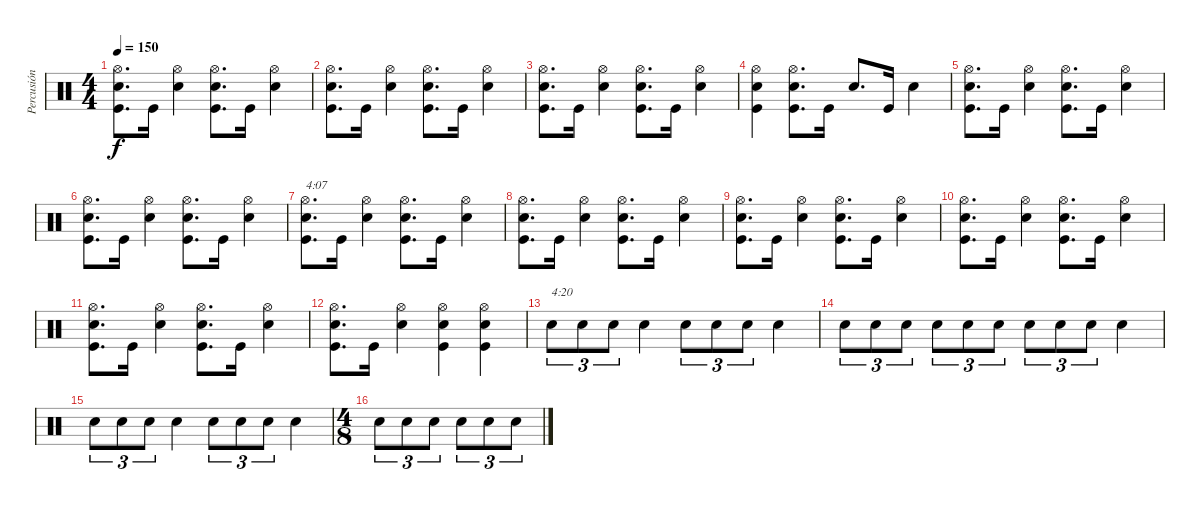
\track ("Percusión" "Percusión") {instrument percussion}
\staff {score}
\articulation defaults
\ts (4 4)
\tempo 150
\clef neutral
\ks c
("Kick (hit)" "Snare (hit) 2" "Hi-Hat (open)").8{d dy f} "Kick (hit)".16 ("Snare (hit) 2" "Hi-Hat (open)").4 ("Kick (hit)" "Snare (hit) 2" "Hi-Hat (open)").8{d} "Kick (hit)".16 ("Snare (hit) 2" "Hi-Hat (open)").4 |
("Kick (hit)" "Snare (hit) 2" "Hi-Hat (open)").8{d} "Kick (hit)".16 ("Snare (hit) 2" "Hi-Hat (open)").4 ("Kick (hit)" "Snare (hit) 2" "Hi-Hat (open)").8{d} "Kick (hit)".16 ("Snare (hit) 2" "Hi-Hat (open)").4 |
("Kick (hit)" "Snare (hit) 2" "Hi-Hat (open)").8{d} "Kick (hit)".16 ("Snare (hit) 2" "Hi-Hat (open)").4 ("Kick (hit)" "Snare (hit) 2" "Hi-Hat (open)").8{d} "Kick (hit)".16 ("Snare (hit) 2" "Hi-Hat (open)").4 |
("Kick (hit)" "Snare (hit) 2" "Hi-Hat (open)").4 ("Kick (hit)" "Snare (hit) 2" "Hi-Hat (open)").8{d} "Kick (hit)".16 "Snare (hit) 2".8{d} "Kick (hit)".16 "Snare (hit) 2".4 |
("Kick (hit)" "Snare (hit) 2" "Hi-Hat (open)").8{d} "Kick (hit)".16 ("Snare (hit) 2" "Hi-Hat (open)").4 ("Kick (hit)" "Snare (hit) 2" "Hi-Hat (open)").8{d} "Kick (hit)".16 ("Snare (hit) 2" "Hi-Hat (open)").4 |
("Kick (hit)" "Snare (hit) 2" "Hi-Hat (open)").8{d} "Kick (hit)".16 ("Snare (hit) 2" "Hi-Hat (open)").4 ("Kick (hit)" "Snare (hit) 2" "Hi-Hat (open)").8{d} "Kick (hit)".16 ("Snare (hit) 2" "Hi-Hat (open)").4 |
("Kick (hit)" "Snare (hit) 2" "Hi-Hat (open)").8{d txt "4:07"} "Kick (hit)".16 ("Snare (hit) 2" "Hi-Hat (open)").4 ("Kick (hit)" "Snare (hit) 2" "Hi-Hat (open)").8{d} "Kick (hit)".16 ("Snare (hit) 2" "Hi-Hat (open)").4 |
("Kick (hit)" "Snare (hit) 2" "Hi-Hat (open)").8{d} "Kick (hit)".16 ("Snare (hit) 2" "Hi-Hat (open)").4 ("Kick (hit)" "Snare (hit) 2" "Hi-Hat (open)").8{d} "Kick (hit)".16 ("Snare (hit) 2" "Hi-Hat (open)").4 |
("Kick (hit)" "Snare (hit) 2" "Hi-Hat (open)").8{d} "Kick (hit)".16 ("Snare (hit) 2" "Hi-Hat (open)").4 ("Kick (hit)" "Snare (hit) 2" "Hi-Hat (open)").8{d} "Kick (hit)".16 ("Snare (hit) 2" "Hi-Hat (open)").4 |
("Kick (hit)" "Snare (hit) 2" "Hi-Hat (open)").8{d} "Kick (hit)".16 ("Snare (hit) 2" "Hi-Hat (open)").4 ("Kick (hit)" "Snare (hit) 2" "Hi-Hat (open)").8{d} "Kick (hit)".16 ("Snare (hit) 2" "Hi-Hat (open)").4 |
("Kick (hit)" "Snare (hit) 2" "Hi-Hat (open)").8{d} "Kick (hit)".16 ("Snare (hit) 2" "Hi-Hat (open)").4 ("Kick (hit)" "Snare (hit) 2" "Hi-Hat (open)").8{d} "Kick (hit)".16 ("Snare (hit) 2" "Hi-Hat (open)").4 |
("Kick (hit)" "Snare (hit) 2" "Hi-Hat (open)").8{d} "Kick (hit)".16 ("Snare (hit) 2" "Hi-Hat (open)").4 ("Kick (hit)" "Snare (hit) 2" "Hi-Hat (open)").4 ("Kick (hit)" "Snare (hit) 2" "Hi-Hat (open)").4 |
"Snare (hit) 2".8{tu (3 2) txt "4:20"} "Snare (hit) 2".8{tu (3 2)} "Snare (hit) 2".8{tu (3 2)} "Snare (hit) 2".4 "Snare (hit) 2".8{tu (3 2)} "Snare (hit) 2".8{tu (3 2)} "Snare (hit) 2".8{tu (3 2)} "Snare (hit) 2".4 |
"Snare (hit) 2".8{tu (3 2)} "Snare (hit) 2".8{tu (3 2)} "Snare (hit) 2".8{tu (3 2)} "Snare (hit) 2".8{tu (3 2)} "Snare (hit) 2".8{tu (3 2)} "Snare (hit) 2".8{tu (3 2)} "Snare (hit) 2".8{tu (3 2)} "Snare (hit) 2".8{tu (3 2)} "Snare (hit) 2".8{tu (3 2)} "Snare (hit) 2".4 |
"Snare (hit) 2".8{tu (3 2)} "Snare (hit) 2".8{tu (3 2)} "Snare (hit) 2".8{tu (3 2)} "Snare (hit) 2".4 "Snare (hit) 2".8{tu (3 2)} "Snare (hit) 2".8{tu (3 2)} "Snare (hit) 2".8{tu (3 2)} "Snare (hit) 2".4 |
\ts (4 8)
"Snare (hit) 2".8{tu (3 2)} "Snare (hit) 2".8{tu (3 2)} "Snare (hit) 2".8{tu (3 2)} "Snare (hit) 2".8{tu (3 2)} "Snare (hit) 2".8{tu (3 2)} "Snare (hit) 2".8{tu (3 2)}
